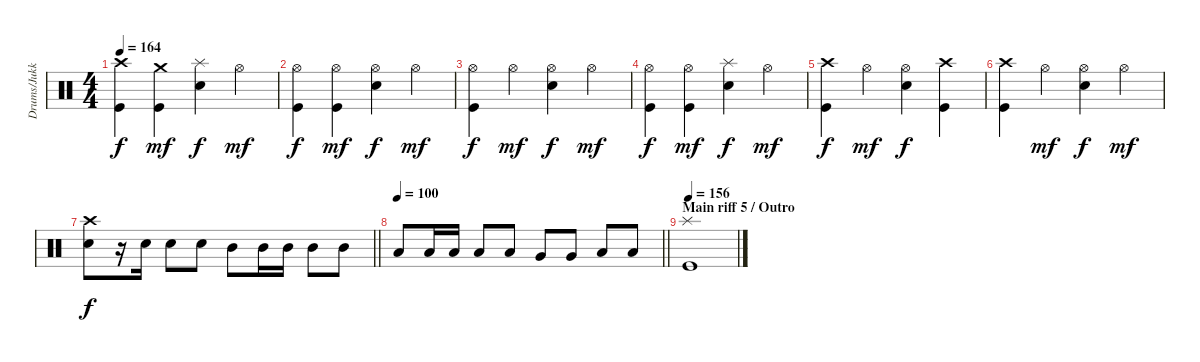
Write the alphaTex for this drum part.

\track ("Drums/Jukka" "Drums/Jukk") {instrument percussion}
\staff {score}
\articulation defaults
\ts (4 4)
\tempo 164
\clef neutral
\ks c
("Crash high (hit)" "Kick (hit)").4{dy f} ("Crash medium (hit)" "Kick (hit)").4{dy mf} ("Splash (hit)" "Electric Snare (hit)").4{dy f} "Hi-Hat (open)".4{dy mf} |
("Hi-Hat (open)" "Kick (hit)").4{dy f} ("Hi-Hat (open)" "Kick (hit)").4{dy mf} ("Hi-Hat (open)" "Electric Snare (hit)").4{dy f} "Hi-Hat (open)".4{dy mf} |
("Hi-Hat (open)" "Kick (hit)").4{dy f} "Hi-Hat (open)".4{dy mf} ("Hi-Hat (open)" "Electric Snare (hit)").4{dy f} "Hi-Hat (open)".4{dy mf} |
("Hi-Hat (open)" "Kick (hit)").4{dy f} ("Hi-Hat (open)" "Kick (hit)").4{dy mf} ("Splash (hit)" "Electric Snare (hit)").4{dy f} "Hi-Hat (open)".4{dy mf} |
("Crash high (hit)" "Kick (hit)").4{dy f} "Hi-Hat (open)".4{dy mf} ("Hi-Hat (open)" "Electric Snare (hit)").4{dy f} ("Crash high (hit)" "Kick (hit)").4 |
("Crash high (hit)" "Kick (hit)").4 "Hi-Hat (open)".4{dy mf} ("Hi-Hat (open)" "Electric Snare (hit)").4{dy f} "Hi-Hat (open)".4{dy mf} |
\barLineRight lightlight
("Crash high (hit)" "Electric Snare (hit)").8{dy f} r.16 "Electric Snare (hit)".16 "Electric Snare (hit)".8 "Electric Snare (hit)".8 "Mid Tom (hit)".8 "Mid Tom (hit)".16 "Mid Tom (hit)".16 "Mid Tom (hit)".8 "Mid Tom (hit)".8 |
\tempo 100
\barLineRight lightlight "Low Tom (hit)".8 "Low Tom (hit)".16 "Low Tom (hit)".16 "Low Tom (hit)".8 "Low Tom (hit)".8 "Very Low Tom (hit)".8 "Very Low Tom (hit)".8 "Low Floor Tom (hit)".8 "Low Floor Tom (hit)".8
|
\section ("" "Main riff 5 / Outro")
\tempo 156
("Splash (hit)" "Kick (hit)").1
